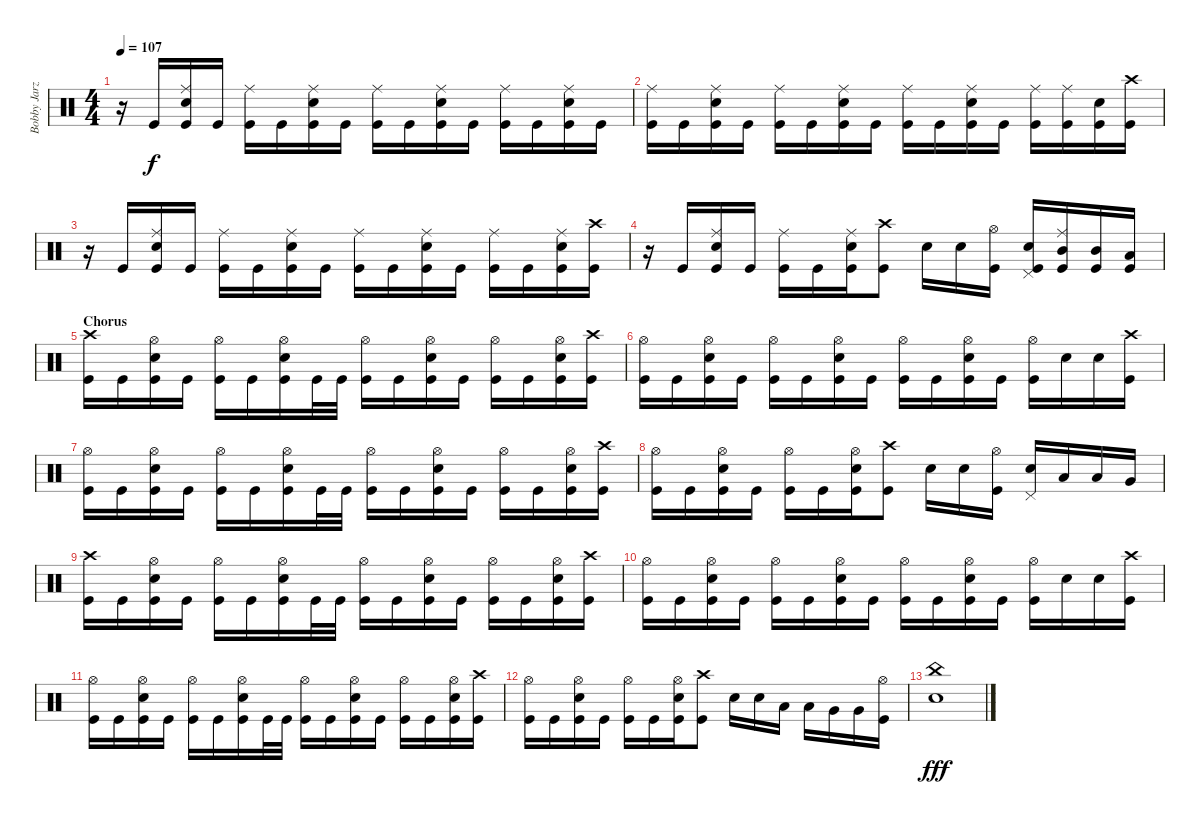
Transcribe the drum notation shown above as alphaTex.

\track ("Bobby Jarzombek" "Bobby Jarz") {instrument percussion}
\staff {score}
\articulation defaults
\ts (4 4)
\tempo 107
\clef neutral
\ks c
r.16{dy f} "Kick (hit)".16 ("Ride (middle)" "Electric Snare (hit)" "Kick (hit)").16 "Kick (hit)".16 ("Ride (middle)" "Kick (hit)").16 "Kick (hit)".16 ("Ride (middle)" "Electric Snare (hit)" "Kick (hit)").16 "Kick (hit)".16 ("Ride (middle)" "Kick (hit)").16 "Kick (hit)".16 ("Ride (middle)" "Electric Snare (hit)" "Kick (hit)").16 "Kick (hit)".16 ("Ride (middle)" "Kick (hit)").16 "Kick (hit)".16 ("Ride (middle)" "Electric Snare (hit)" "Kick (hit)").16 "Kick (hit)".16 |
("Ride (middle)" "Kick (hit)").16 "Kick (hit)".16 ("Ride (middle)" "Electric Snare (hit)" "Kick (hit)").16 "Kick (hit)".16 ("Ride (middle)" "Kick (hit)").16 "Kick (hit)".16 ("Ride (middle)" "Electric Snare (hit)" "Kick (hit)").16 "Kick (hit)".16 ("Ride (middle)" "Kick (hit)").16 "Kick (hit)".16 ("Ride (middle)" "Electric Snare (hit)" "Kick (hit)").16 "Kick (hit)".16 ("Ride (middle)" "Kick (hit)").16 ("Ride (middle)" "Kick (hit)").16 ("Electric Snare (hit)" "Kick (hit)").16 ("Crash high (hit)" "Kick (hit)").16 |
r.16 "Kick (hit)".16 ("Ride (middle)" "Electric Snare (hit)" "Kick (hit)").16 "Kick (hit)".16 ("Ride (middle)" "Kick (hit)").16 "Kick (hit)".16 ("Ride (middle)" "Electric Snare (hit)" "Kick (hit)").16 "Kick (hit)".16 ("Ride (middle)" "Kick (hit)").16 "Kick (hit)".16 ("Ride (middle)" "Electric Snare (hit)" "Kick (hit)").16 "Kick (hit)".16 ("Ride (middle)" "Kick (hit)").16 "Kick (hit)".16 ("Ride (middle)" "Electric Snare (hit)" "Kick (hit)").16 ("Crash high (hit)" "Kick (hit)").16 |
r.16 "Kick (hit)".16 ("Ride (middle)" "Electric Snare (hit)" "Kick (hit)").16 "Kick (hit)".16 ("Ride (middle)" "Kick (hit)").16 "Kick (hit)".16 ("Ride (middle)" "Electric Snare (hit)" "Kick (hit)").16 ("Crash high (hit)" "Kick (hit)").8 "Electric Snare (hit)".16 "Electric Snare (hit)".16 ("Hi-Hat (open)" "Kick (hit)").16 ("Electric Snare (hit)" "Pedal Hi-Hat (hit)" "Kick (hit)").16 ("Ride (middle)" "Mid Tom (hit)" "Kick (hit)").16 ("Mid Tom (hit)" "Kick (hit)").16 ("Low Tom (hit)" "Kick (hit)").16 |
\section ("" "Chorus")
("Crash high (hit)" "Kick (hit)").16 "Kick (hit)".16 ("Hi-Hat (open)" "Electric Snare (hit)" "Kick (hit)").16 "Kick (hit)".16 ("Hi-Hat (open)" "Kick (hit)").16 "Kick (hit)".16 ("Hi-Hat (open)" "Electric Snare (hit)" "Kick (hit)").16 "Kick (hit)".32 "Kick (hit)".32 ("Hi-Hat (open)" "Kick (hit)").16 "Kick (hit)".16 ("Hi-Hat (open)" "Electric Snare (hit)" "Kick (hit)").16 "Kick (hit)".16 ("Hi-Hat (open)" "Kick (hit)").16 "Kick (hit)".16 ("Hi-Hat (open)" "Electric Snare (hit)" "Kick (hit)").16 ("Crash high (hit)" "Kick (hit)").16 |
("Hi-Hat (open)" "Kick (hit)").16 "Kick (hit)".16 ("Hi-Hat (open)" "Electric Snare (hit)" "Kick (hit)").16 "Kick (hit)".16 ("Hi-Hat (open)" "Kick (hit)").16 "Kick (hit)".16 ("Hi-Hat (open)" "Electric Snare (hit)" "Kick (hit)").16 "Kick (hit)".16 ("Hi-Hat (open)" "Kick (hit)").16 "Kick (hit)".16 ("Hi-Hat (open)" "Electric Snare (hit)" "Kick (hit)").16 "Kick (hit)".16 ("Hi-Hat (open)" "Kick (hit)").16 "Electric Snare (hit)".16 "Electric Snare (hit)".16 ("Crash high (hit)" "Kick (hit)").16 |
("Hi-Hat (open)" "Kick (hit)").16 "Kick (hit)".16 ("Hi-Hat (open)" "Electric Snare (hit)" "Kick (hit)").16 "Kick (hit)".16 ("Hi-Hat (open)" "Kick (hit)").16 "Kick (hit)".16 ("Hi-Hat (open)" "Electric Snare (hit)" "Kick (hit)").16 "Kick (hit)".32 "Kick (hit)".32 ("Hi-Hat (open)" "Kick (hit)").16 "Kick (hit)".16 ("Hi-Hat (open)" "Electric Snare (hit)" "Kick (hit)").16 "Kick (hit)".16 ("Hi-Hat (open)" "Kick (hit)").16 "Kick (hit)".16 ("Hi-Hat (open)" "Electric Snare (hit)" "Kick (hit)").16 ("Crash high (hit)" "Kick (hit)").16 |
("Hi-Hat (open)" "Kick (hit)").16 "Kick (hit)".16 ("Hi-Hat (open)" "Electric Snare (hit)" "Kick (hit)").16 "Kick (hit)".16 ("Hi-Hat (open)" "Kick (hit)").16 "Kick (hit)".16 ("Hi-Hat (open)" "Electric Snare (hit)" "Kick (hit)").16 ("Crash high (hit)" "Kick (hit)").8 "Electric Snare (hit)".16 "Electric Snare (hit)".16 ("Hi-Hat (open)" "Kick (hit)").16 ("Electric Snare (hit)" "Pedal Hi-Hat (hit)").16 "Low Tom (hit)".16 "Low Tom (hit)".16 "Very Low Tom (hit)".16 |
("Crash high (hit)" "Kick (hit)").16 "Kick (hit)".16 ("Hi-Hat (open)" "Electric Snare (hit)" "Kick (hit)").16 "Kick (hit)".16 ("Hi-Hat (open)" "Kick (hit)").16 "Kick (hit)".16 ("Hi-Hat (open)" "Electric Snare (hit)" "Kick (hit)").16 "Kick (hit)".32 "Kick (hit)".32 ("Hi-Hat (open)" "Kick (hit)").16 "Kick (hit)".16 ("Hi-Hat (open)" "Electric Snare (hit)" "Kick (hit)").16 "Kick (hit)".16 ("Hi-Hat (open)" "Kick (hit)").16 "Kick (hit)".16 ("Hi-Hat (open)" "Electric Snare (hit)" "Kick (hit)").16 ("Crash high (hit)" "Kick (hit)").16 |
("Hi-Hat (open)" "Kick (hit)").16 "Kick (hit)".16 ("Hi-Hat (open)" "Electric Snare (hit)" "Kick (hit)").16 "Kick (hit)".16 ("Hi-Hat (open)" "Kick (hit)").16 "Kick (hit)".16 ("Hi-Hat (open)" "Electric Snare (hit)" "Kick (hit)").16 "Kick (hit)".16 ("Hi-Hat (open)" "Kick (hit)").16 "Kick (hit)".16 ("Hi-Hat (open)" "Electric Snare (hit)" "Kick (hit)").16 "Kick (hit)".16 ("Hi-Hat (open)" "Kick (hit)").16 "Electric Snare (hit)".16 "Electric Snare (hit)".16 ("Crash high (hit)" "Kick (hit)").16 |
("Hi-Hat (open)" "Kick (hit)").16 "Kick (hit)".16 ("Hi-Hat (open)" "Electric Snare (hit)" "Kick (hit)").16 "Kick (hit)".16 ("Hi-Hat (open)" "Kick (hit)").16 "Kick (hit)".16 ("Hi-Hat (open)" "Electric Snare (hit)" "Kick (hit)").16 "Kick (hit)".32 "Kick (hit)".32 ("Hi-Hat (open)" "Kick (hit)").16 "Kick (hit)".16 ("Hi-Hat (open)" "Electric Snare (hit)" "Kick (hit)").16 "Kick (hit)".16 ("Hi-Hat (open)" "Kick (hit)").16 "Kick (hit)".16 ("Hi-Hat (open)" "Electric Snare (hit)" "Kick (hit)").16 ("Crash high (hit)" "Kick (hit)").16 |
("Hi-Hat (open)" "Kick (hit)").16 "Kick (hit)".16 ("Hi-Hat (open)" "Electric Snare (hit)" "Kick (hit)").16 "Kick (hit)".16 ("Hi-Hat (open)" "Kick (hit)").16 "Kick (hit)".16 ("Hi-Hat (open)" "Electric Snare (hit)" "Kick (hit)").16 ("Crash high (hit)" "Kick (hit)").8 "Electric Snare (hit)".16 "Electric Snare (hit)".16 "Low Tom (hit)".16 "Low Tom (hit)".16 "Very Low Tom (hit)".16 "Very Low Tom (hit)".16 ("Hi-Hat (open)" "Kick (hit)").16 |
("China (hit)" "Electric Snare (hit)").1{dy fff}
